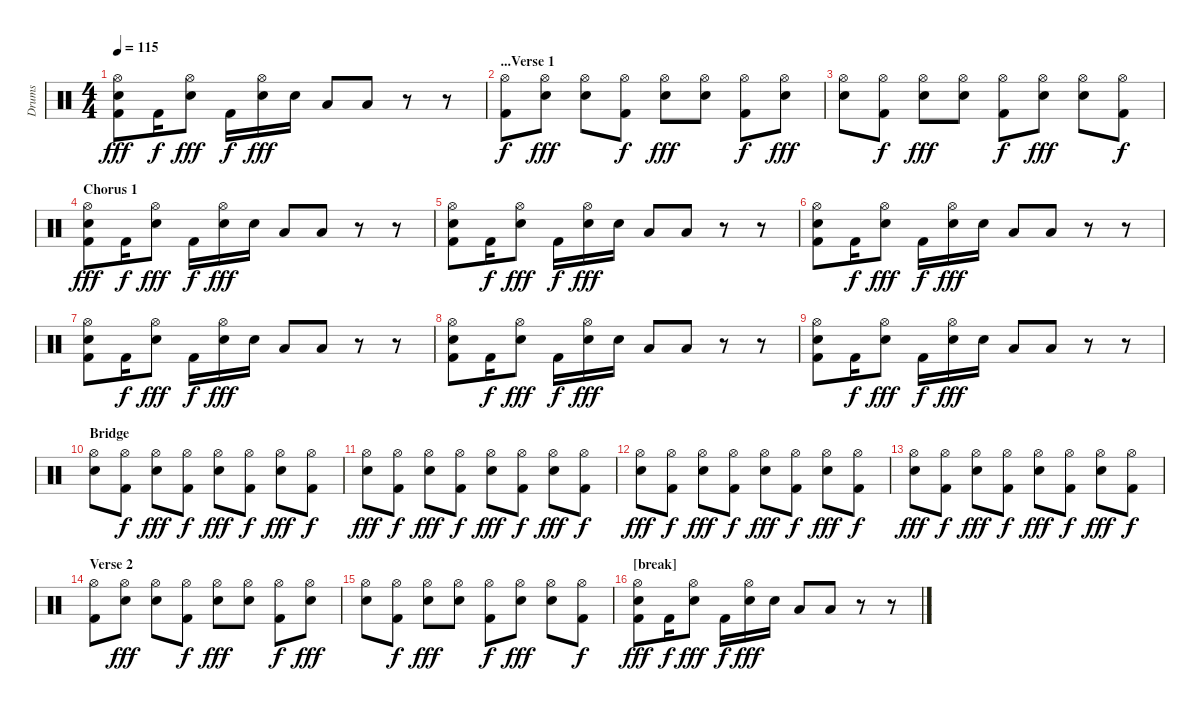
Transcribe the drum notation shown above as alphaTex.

\track ("Drums" "Drums") {instrument percussion}
\staff {score}
\articulation defaults
\ts (4 4)
\tempo 115
\clef neutral
\ks c
("Hi-Hat (open)" "Snare (hit) 2" "Kick (hit) 2").8{dy fff} "Kick (hit) 2".16{dy f} ("Hi-Hat (open)" "Snare (hit) 2").8{dy fff} "Kick (hit) 2".16{dy f} ("Hi-Hat (open)" "Snare (hit) 2").16{dy fff} "Snare (hit) 2".16 "Low Floor Tom (hit)".8 "Low Floor Tom (hit)".8 r.8 r.8 |
\section ("" "...Verse 1")
("Hi-Hat (open)" "Kick (hit) 2").8{dy f} ("Hi-Hat (open)" "Snare (hit) 2").8{dy fff} ("Hi-Hat (open)" "Snare (hit) 2").8 ("Hi-Hat (open)" "Kick (hit) 2").8{dy f} ("Hi-Hat (open)" "Snare (hit) 2").8{dy fff} ("Hi-Hat (open)" "Snare (hit) 2").8 ("Hi-Hat (open)" "Kick (hit) 2").8{dy f} ("Hi-Hat (open)" "Snare (hit) 2").8{dy fff} |
("Hi-Hat (open)" "Snare (hit) 2").8 ("Hi-Hat (open)" "Kick (hit) 2").8{dy f} ("Hi-Hat (open)" "Snare (hit) 2").8{dy fff} ("Hi-Hat (open)" "Snare (hit) 2").8 ("Hi-Hat (open)" "Kick (hit) 2").8{dy f} ("Hi-Hat (open)" "Snare (hit) 2").8{dy fff} ("Hi-Hat (open)" "Snare (hit) 2").8 ("Hi-Hat (open)" "Kick (hit) 2").8{dy f} |
\section ("" "Chorus 1")
("Hi-Hat (open)" "Snare (hit) 2" "Kick (hit) 2").8{dy fff} "Kick (hit) 2".16{dy f} ("Hi-Hat (open)" "Snare (hit) 2").8{dy fff} "Kick (hit) 2".16{dy f} ("Hi-Hat (open)" "Snare (hit) 2").16{dy fff} "Snare (hit) 2".16 "Low Floor Tom (hit)".8 "Low Floor Tom (hit)".8 r.8 r.8 |
("Hi-Hat (open)" "Snare (hit) 2" "Kick (hit) 2").8 "Kick (hit) 2".16{dy f} ("Hi-Hat (open)" "Snare (hit) 2").8{dy fff} "Kick (hit) 2".16{dy f} ("Hi-Hat (open)" "Snare (hit) 2").16{dy fff} "Snare (hit) 2".16 "Low Floor Tom (hit)".8 "Low Floor Tom (hit)".8 r.8 r.8 |
("Hi-Hat (open)" "Snare (hit) 2" "Kick (hit) 2").8 "Kick (hit) 2".16{dy f} ("Hi-Hat (open)" "Snare (hit) 2").8{dy fff} "Kick (hit) 2".16{dy f} ("Hi-Hat (open)" "Snare (hit) 2").16{dy fff} "Snare (hit) 2".16 "Low Floor Tom (hit)".8 "Low Floor Tom (hit)".8 r.8 r.8 |
("Hi-Hat (open)" "Snare (hit) 2" "Kick (hit) 2").8 "Kick (hit) 2".16{dy f} ("Hi-Hat (open)" "Snare (hit) 2").8{dy fff} "Kick (hit) 2".16{dy f} ("Hi-Hat (open)" "Snare (hit) 2").16{dy fff} "Snare (hit) 2".16 "Low Floor Tom (hit)".8 "Low Floor Tom (hit)".8 r.8 r.8 |
("Hi-Hat (open)" "Snare (hit) 2" "Kick (hit) 2").8 "Kick (hit) 2".16{dy f} ("Hi-Hat (open)" "Snare (hit) 2").8{dy fff} "Kick (hit) 2".16{dy f} ("Hi-Hat (open)" "Snare (hit) 2").16{dy fff} "Snare (hit) 2".16 "Low Floor Tom (hit)".8 "Low Floor Tom (hit)".8 r.8 r.8 |
("Hi-Hat (open)" "Snare (hit) 2" "Kick (hit) 2").8 "Kick (hit) 2".16{dy f} ("Hi-Hat (open)" "Snare (hit) 2").8{dy fff} "Kick (hit) 2".16{dy f} ("Hi-Hat (open)" "Snare (hit) 2").16{dy fff} "Snare (hit) 2".16 "Low Floor Tom (hit)".8 "Low Floor Tom (hit)".8 r.8 r.8 |
\section ("" "Bridge")
("Hi-Hat (open)" "Snare (hit) 2").8 ("Hi-Hat (open)" "Kick (hit) 2").8{dy f} ("Hi-Hat (open)" "Snare (hit) 2").8{dy fff} ("Hi-Hat (open)" "Kick (hit) 2").8{dy f} ("Hi-Hat (open)" "Snare (hit) 2").8{dy fff} ("Hi-Hat (open)" "Kick (hit) 2").8{dy f} ("Hi-Hat (open)" "Snare (hit) 2").8{dy fff} ("Hi-Hat (open)" "Kick (hit) 2").8{dy f} |
("Hi-Hat (open)" "Snare (hit) 2").8{dy fff} ("Hi-Hat (open)" "Kick (hit) 2").8{dy f} ("Hi-Hat (open)" "Snare (hit) 2").8{dy fff} ("Hi-Hat (open)" "Kick (hit) 2").8{dy f} ("Hi-Hat (open)" "Snare (hit) 2").8{dy fff} ("Hi-Hat (open)" "Kick (hit) 2").8{dy f} ("Hi-Hat (open)" "Snare (hit) 2").8{dy fff} ("Hi-Hat (open)" "Kick (hit) 2").8{dy f} |
("Hi-Hat (open)" "Snare (hit) 2").8{dy fff} ("Hi-Hat (open)" "Kick (hit) 2").8{dy f} ("Hi-Hat (open)" "Snare (hit) 2").8{dy fff} ("Hi-Hat (open)" "Kick (hit) 2").8{dy f} ("Hi-Hat (open)" "Snare (hit) 2").8{dy fff} ("Hi-Hat (open)" "Kick (hit) 2").8{dy f} ("Hi-Hat (open)" "Snare (hit) 2").8{dy fff} ("Hi-Hat (open)" "Kick (hit) 2").8{dy f} |
("Hi-Hat (open)" "Snare (hit) 2").8{dy fff} ("Hi-Hat (open)" "Kick (hit) 2").8{dy f} ("Hi-Hat (open)" "Snare (hit) 2").8{dy fff} ("Hi-Hat (open)" "Kick (hit) 2").8{dy f} ("Hi-Hat (open)" "Snare (hit) 2").8{dy fff} ("Hi-Hat (open)" "Kick (hit) 2").8{dy f} ("Hi-Hat (open)" "Snare (hit) 2").8{dy fff} ("Hi-Hat (open)" "Kick (hit) 2").8{dy f} |
\section ("" "Verse 2")
("Hi-Hat (open)" "Kick (hit) 2").8 ("Hi-Hat (open)" "Snare (hit) 2").8{dy fff} ("Hi-Hat (open)" "Snare (hit) 2").8 ("Hi-Hat (open)" "Kick (hit) 2").8{dy f} ("Hi-Hat (open)" "Snare (hit) 2").8{dy fff} ("Hi-Hat (open)" "Snare (hit) 2").8 ("Hi-Hat (open)" "Kick (hit) 2").8{dy f} ("Hi-Hat (open)" "Snare (hit) 2").8{dy fff} |
("Hi-Hat (open)" "Snare (hit) 2").8 ("Hi-Hat (open)" "Kick (hit) 2").8{dy f} ("Hi-Hat (open)" "Snare (hit) 2").8{dy fff} ("Hi-Hat (open)" "Snare (hit) 2").8 ("Hi-Hat (open)" "Kick (hit) 2").8{dy f} ("Hi-Hat (open)" "Snare (hit) 2").8{dy fff} ("Hi-Hat (open)" "Snare (hit) 2").8 ("Hi-Hat (open)" "Kick (hit) 2").8{dy f} |
\section ("" "[break]")
("Hi-Hat (open)" "Snare (hit) 2" "Kick (hit) 2").8{dy fff} "Kick (hit) 2".16{dy f} ("Hi-Hat (open)" "Snare (hit) 2").8{dy fff} "Kick (hit) 2".16{dy f} ("Hi-Hat (open)" "Snare (hit) 2").16{dy fff} "Snare (hit) 2".16 "Low Floor Tom (hit)".8 "Low Floor Tom (hit)".8 r.8 r.8
